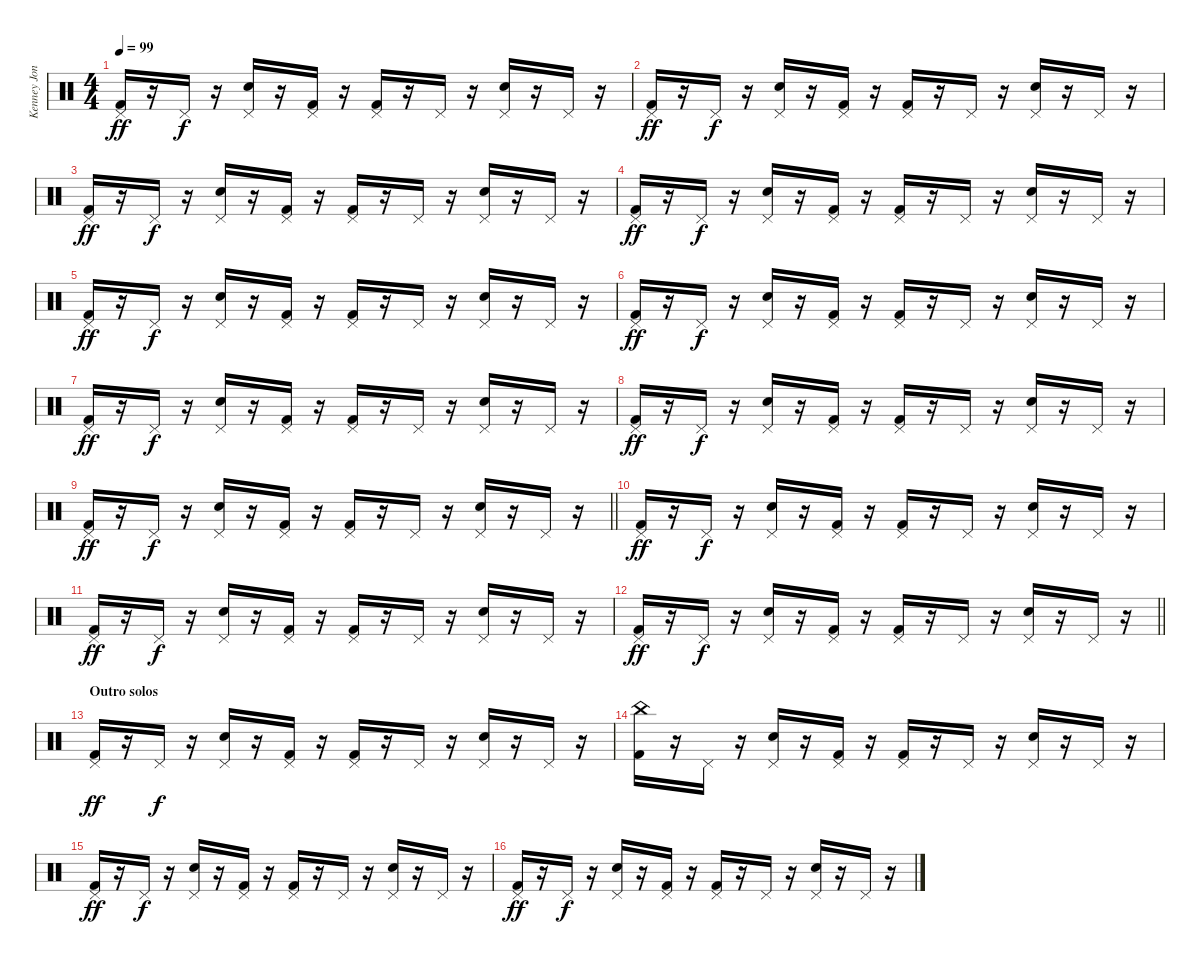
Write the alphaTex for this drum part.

\track ("Kenney Jones" "Kenney Jon") {instrument percussion}
\staff {score}
\articulation defaults
\ts (4 4)
\tempo 99
\clef neutral
\ks c
("Pedal Hi-Hat (hit)" "Kick (hit) 2").16{dy ff} r.16 "Pedal Hi-Hat (hit)".16{dy f} r.16 ("Pedal Hi-Hat (hit)" "Snare (hit) 2").16 r.16 ("Pedal Hi-Hat (hit)" "Kick (hit) 2").16 r.16 ("Pedal Hi-Hat (hit)" "Kick (hit) 2").16 r.16 "Pedal Hi-Hat (hit)".16 r.16 ("Pedal Hi-Hat (hit)" "Snare (hit) 2").16 r.16 "Pedal Hi-Hat (hit)".16 r.16 |
("Pedal Hi-Hat (hit)" "Kick (hit) 2").16{dy ff} r.16 "Pedal Hi-Hat (hit)".16{dy f} r.16 ("Pedal Hi-Hat (hit)" "Snare (hit) 2").16 r.16 ("Pedal Hi-Hat (hit)" "Kick (hit) 2").16 r.16 ("Pedal Hi-Hat (hit)" "Kick (hit) 2").16 r.16 "Pedal Hi-Hat (hit)".16 r.16 ("Pedal Hi-Hat (hit)" "Snare (hit) 2").16 r.16 "Pedal Hi-Hat (hit)".16 r.16 |
("Pedal Hi-Hat (hit)" "Kick (hit) 2").16{dy ff} r.16 "Pedal Hi-Hat (hit)".16{dy f} r.16 ("Pedal Hi-Hat (hit)" "Snare (hit) 2").16 r.16 ("Pedal Hi-Hat (hit)" "Kick (hit) 2").16 r.16 ("Pedal Hi-Hat (hit)" "Kick (hit) 2").16 r.16 "Pedal Hi-Hat (hit)".16 r.16 ("Pedal Hi-Hat (hit)" "Snare (hit) 2").16 r.16 "Pedal Hi-Hat (hit)".16 r.16 |
("Pedal Hi-Hat (hit)" "Kick (hit) 2").16{dy ff} r.16 "Pedal Hi-Hat (hit)".16{dy f} r.16 ("Pedal Hi-Hat (hit)" "Snare (hit) 2").16 r.16 ("Pedal Hi-Hat (hit)" "Kick (hit) 2").16 r.16 ("Pedal Hi-Hat (hit)" "Kick (hit) 2").16 r.16 "Pedal Hi-Hat (hit)".16 r.16 ("Pedal Hi-Hat (hit)" "Snare (hit) 2").16 r.16 "Pedal Hi-Hat (hit)".16 r.16 |
("Pedal Hi-Hat (hit)" "Kick (hit) 2").16{dy ff} r.16 "Pedal Hi-Hat (hit)".16{dy f} r.16 ("Pedal Hi-Hat (hit)" "Snare (hit) 2").16 r.16 ("Pedal Hi-Hat (hit)" "Kick (hit) 2").16 r.16 ("Pedal Hi-Hat (hit)" "Kick (hit) 2").16 r.16 "Pedal Hi-Hat (hit)".16 r.16 ("Pedal Hi-Hat (hit)" "Snare (hit) 2").16 r.16 "Pedal Hi-Hat (hit)".16 r.16 |
("Pedal Hi-Hat (hit)" "Kick (hit) 2").16{dy ff} r.16 "Pedal Hi-Hat (hit)".16{dy f} r.16 ("Pedal Hi-Hat (hit)" "Snare (hit) 2").16 r.16 ("Pedal Hi-Hat (hit)" "Kick (hit) 2").16 r.16 ("Pedal Hi-Hat (hit)" "Kick (hit) 2").16 r.16 "Pedal Hi-Hat (hit)".16 r.16 ("Pedal Hi-Hat (hit)" "Snare (hit) 2").16 r.16 "Pedal Hi-Hat (hit)".16 r.16 |
("Pedal Hi-Hat (hit)" "Kick (hit) 2").16{dy ff} r.16 "Pedal Hi-Hat (hit)".16{dy f} r.16 ("Pedal Hi-Hat (hit)" "Snare (hit) 2").16 r.16 ("Pedal Hi-Hat (hit)" "Kick (hit) 2").16 r.16 ("Pedal Hi-Hat (hit)" "Kick (hit) 2").16 r.16 "Pedal Hi-Hat (hit)".16 r.16 ("Pedal Hi-Hat (hit)" "Snare (hit) 2").16 r.16 "Pedal Hi-Hat (hit)".16 r.16 |
("Pedal Hi-Hat (hit)" "Kick (hit) 2").16{dy ff} r.16 "Pedal Hi-Hat (hit)".16{dy f} r.16 ("Pedal Hi-Hat (hit)" "Snare (hit) 2").16 r.16 ("Pedal Hi-Hat (hit)" "Kick (hit) 2").16 r.16 ("Pedal Hi-Hat (hit)" "Kick (hit) 2").16 r.16 "Pedal Hi-Hat (hit)".16 r.16 ("Pedal Hi-Hat (hit)" "Snare (hit) 2").16 r.16 "Pedal Hi-Hat (hit)".16 r.16 |
\barLineRight lightlight
("Pedal Hi-Hat (hit)" "Kick (hit) 2").16{dy ff} r.16 "Pedal Hi-Hat (hit)".16{dy f} r.16 ("Pedal Hi-Hat (hit)" "Snare (hit) 2").16 r.16 ("Pedal Hi-Hat (hit)" "Kick (hit) 2").16 r.16 ("Pedal Hi-Hat (hit)" "Kick (hit) 2").16 r.16 "Pedal Hi-Hat (hit)".16 r.16 ("Pedal Hi-Hat (hit)" "Snare (hit) 2").16 r.16 "Pedal Hi-Hat (hit)".16 r.16 |
("Pedal Hi-Hat (hit)" "Kick (hit) 2").16{dy ff} r.16 "Pedal Hi-Hat (hit)".16{dy f} r.16 ("Pedal Hi-Hat (hit)" "Snare (hit) 2").16 r.16 ("Pedal Hi-Hat (hit)" "Kick (hit) 2").16 r.16 ("Pedal Hi-Hat (hit)" "Kick (hit) 2").16 r.16 "Pedal Hi-Hat (hit)".16 r.16 ("Pedal Hi-Hat (hit)" "Snare (hit) 2").16 r.16 "Pedal Hi-Hat (hit)".16 r.16 |
("Pedal Hi-Hat (hit)" "Kick (hit) 2").16{dy ff} r.16 "Pedal Hi-Hat (hit)".16{dy f} r.16 ("Pedal Hi-Hat (hit)" "Snare (hit) 2").16 r.16 ("Pedal Hi-Hat (hit)" "Kick (hit) 2").16 r.16 ("Pedal Hi-Hat (hit)" "Kick (hit) 2").16 r.16 "Pedal Hi-Hat (hit)".16 r.16 ("Pedal Hi-Hat (hit)" "Snare (hit) 2").16 r.16 "Pedal Hi-Hat (hit)".16 r.16 |
\barLineRight lightlight
("Pedal Hi-Hat (hit)" "Kick (hit) 2").16{dy ff} r.16 "Pedal Hi-Hat (hit)".16{dy f} r.16 ("Pedal Hi-Hat (hit)" "Snare (hit) 2").16 r.16 ("Pedal Hi-Hat (hit)" "Kick (hit) 2").16 r.16 ("Pedal Hi-Hat (hit)" "Kick (hit) 2").16 r.16 "Pedal Hi-Hat (hit)".16 r.16 ("Pedal Hi-Hat (hit)" "Snare (hit) 2").16 r.16 "Pedal Hi-Hat (hit)".16 r.16 |
\section ("" "Outro solos")
("Pedal Hi-Hat (hit)" "Kick (hit) 2").16{dy ff} r.16 "Pedal Hi-Hat (hit)".16{dy f} r.16 ("Pedal Hi-Hat (hit)" "Snare (hit) 2").16 r.16 ("Pedal Hi-Hat (hit)" "Kick (hit) 2").16 r.16 ("Pedal Hi-Hat (hit)" "Kick (hit) 2").16 r.16 "Pedal Hi-Hat (hit)".16 r.16 ("Pedal Hi-Hat (hit)" "Snare (hit) 2").16 r.16 "Pedal Hi-Hat (hit)".16 r.16 |
("China (hit)" "Kick (hit) 2").16 r.16 "Pedal Hi-Hat (hit)".16 r.16 ("Pedal Hi-Hat (hit)" "Snare (hit) 2").16 r.16 ("Pedal Hi-Hat (hit)" "Kick (hit) 2").16 r.16 ("Pedal Hi-Hat (hit)" "Kick (hit) 2").16 r.16 "Pedal Hi-Hat (hit)".16 r.16 ("Pedal Hi-Hat (hit)" "Snare (hit) 2").16 r.16 "Pedal Hi-Hat (hit)".16 r.16 |
("Pedal Hi-Hat (hit)" "Kick (hit) 2").16{dy ff} r.16 "Pedal Hi-Hat (hit)".16{dy f} r.16 ("Pedal Hi-Hat (hit)" "Snare (hit) 2").16 r.16 ("Pedal Hi-Hat (hit)" "Kick (hit) 2").16 r.16 ("Pedal Hi-Hat (hit)" "Kick (hit) 2").16 r.16 "Pedal Hi-Hat (hit)".16 r.16 ("Pedal Hi-Hat (hit)" "Snare (hit) 2").16 r.16 "Pedal Hi-Hat (hit)".16 r.16 |
("Pedal Hi-Hat (hit)" "Kick (hit) 2").16{dy ff} r.16 "Pedal Hi-Hat (hit)".16{dy f} r.16 ("Pedal Hi-Hat (hit)" "Snare (hit) 2").16 r.16 ("Pedal Hi-Hat (hit)" "Kick (hit) 2").16 r.16 ("Pedal Hi-Hat (hit)" "Kick (hit) 2").16 r.16 "Pedal Hi-Hat (hit)".16 r.16 ("Pedal Hi-Hat (hit)" "Snare (hit) 2").16 r.16 "Pedal Hi-Hat (hit)".16 r.16
